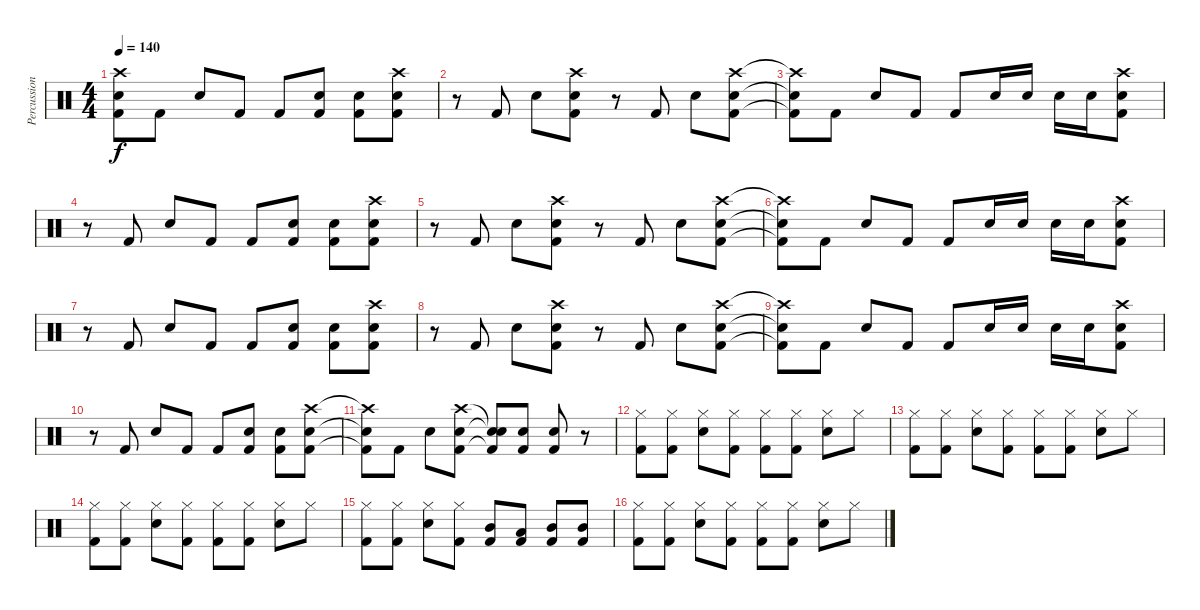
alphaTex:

\track ("Percussion" "Percussion") {instrument percussion}
\staff {score}
\articulation defaults
\ts (4 4)
\tempo 140
\clef neutral
\ks c
("Crash high (hit)"{t} "Snare (hit) 2"{t} "Kick (hit) 2"{t}).8{dy f} "Kick (hit) 2".8 "Snare (hit) 2".8 "Kick (hit) 2".8 "Kick (hit) 2".8 ("Snare (hit) 2" "Kick (hit) 2").8 ("Snare (hit) 2" "Kick (hit) 2").8 ("Crash high (hit)" "Snare (hit) 2" "Kick (hit) 2").8 |
r.8 "Kick (hit) 2".8 "Snare (hit) 2".8 ("Crash high (hit)" "Snare (hit) 2" "Kick (hit) 2").8 r.8 "Kick (hit) 2".8 "Snare (hit) 2".8 ("Crash high (hit)" "Snare (hit) 2" "Kick (hit) 2").8 |
("Crash high (hit)"{t} "Snare (hit) 2"{t} "Kick (hit) 2"{t}).8 "Kick (hit) 2".8 "Snare (hit) 2".8 "Kick (hit) 2".8 "Kick (hit) 2".8 "Snare (hit) 2".16 "Snare (hit) 2".16 "Snare (hit) 2".16 "Snare (hit) 2".16 ("Crash high (hit)" "Snare (hit) 2" "Kick (hit) 2").8 |
r.8 "Kick (hit) 2".8 "Snare (hit) 2".8 "Kick (hit) 2".8 "Kick (hit) 2".8 ("Snare (hit) 2" "Kick (hit) 2").8 ("Snare (hit) 2" "Kick (hit) 2").8 ("Crash high (hit)" "Snare (hit) 2" "Kick (hit) 2").8 |
r.8 "Kick (hit) 2".8 "Snare (hit) 2".8 ("Crash high (hit)" "Snare (hit) 2" "Kick (hit) 2").8 r.8 "Kick (hit) 2".8 "Snare (hit) 2".8 ("Crash high (hit)" "Snare (hit) 2" "Kick (hit) 2").8 |
("Crash high (hit)"{t} "Snare (hit) 2"{t} "Kick (hit) 2"{t}).8 "Kick (hit) 2".8 "Snare (hit) 2".8 "Kick (hit) 2".8 "Kick (hit) 2".8 "Snare (hit) 2".16 "Snare (hit) 2".16 "Snare (hit) 2".16 "Snare (hit) 2".16 ("Crash high (hit)" "Snare (hit) 2" "Kick (hit) 2").8 |
r.8 "Kick (hit) 2".8 "Snare (hit) 2".8 "Kick (hit) 2".8 "Kick (hit) 2".8 ("Snare (hit) 2" "Kick (hit) 2").8 ("Snare (hit) 2" "Kick (hit) 2").8 ("Crash high (hit)" "Snare (hit) 2" "Kick (hit) 2").8 |
r.8 "Kick (hit) 2".8 "Snare (hit) 2".8 ("Crash high (hit)" "Snare (hit) 2" "Kick (hit) 2").8 r.8 "Kick (hit) 2".8 "Snare (hit) 2".8 ("Crash high (hit)" "Snare (hit) 2" "Kick (hit) 2").8 |
("Crash high (hit)"{t} "Snare (hit) 2"{t} "Kick (hit) 2"{t}).8 "Kick (hit) 2".8 "Snare (hit) 2".8 "Kick (hit) 2".8 "Kick (hit) 2".8 "Snare (hit) 2".16 "Snare (hit) 2".16 "Snare (hit) 2".16 "Snare (hit) 2".16 ("Crash high (hit)" "Snare (hit) 2" "Kick (hit) 2").8 |
r.8 "Kick (hit) 2".8 "Snare (hit) 2".8 "Kick (hit) 2".8 "Kick (hit) 2".8 ("Snare (hit) 2" "Kick (hit) 2").8 ("Snare (hit) 2" "Kick (hit) 2").8 ("Crash high (hit)" "Snare (hit) 2" "Kick (hit) 2").8 |
("Crash high (hit)"{t} "Snare (hit) 2"{t} "Kick (hit) 2"{t}).8 "Kick (hit) 2".8 "Snare (hit) 2".8 ("Crash high (hit)" "Snare (hit) 2" "Kick (hit) 2").8 ("Snare (hit)"{t} "Snare (hit)"{t} "Kick (hit) 2"{t}).8 ("Snare (hit) 2" "Kick (hit) 2").8 ("Snare (hit) 2" "Kick (hit) 2").8 r.8 |
("Hi-Hat (closed)" "Kick (hit) 2").8 ("Hi-Hat (closed)" "Kick (hit) 2").8 ("Hi-Hat (closed)" "Snare (hit) 2").8 ("Hi-Hat (closed)" "Kick (hit) 2").8 ("Hi-Hat (closed)" "Kick (hit) 2").8 ("Hi-Hat (closed)" "Kick (hit) 2").8 ("Hi-Hat (closed)" "Snare (hit) 2").8 "Hi-Hat (closed)".8 |
("Hi-Hat (closed)" "Kick (hit) 2").8 ("Hi-Hat (closed)" "Kick (hit) 2").8 ("Hi-Hat (closed)" "Snare (hit) 2").8 ("Hi-Hat (closed)" "Kick (hit) 2").8 ("Hi-Hat (closed)" "Kick (hit) 2").8 ("Hi-Hat (closed)" "Kick (hit) 2").8 ("Hi-Hat (closed)" "Snare (hit) 2").8 "Hi-Hat (closed)".8 |
("Hi-Hat (closed)" "Kick (hit) 2").8 ("Hi-Hat (closed)" "Kick (hit) 2").8 ("Hi-Hat (closed)" "Snare (hit) 2").8 ("Hi-Hat (closed)" "Kick (hit) 2").8 ("Hi-Hat (closed)" "Kick (hit) 2").8 ("Hi-Hat (closed)" "Kick (hit) 2").8 ("Hi-Hat (closed)" "Snare (hit) 2").8 "Hi-Hat (closed)".8 |
("Hi-Hat (closed)" "Kick (hit) 2").8 ("Hi-Hat (closed)" "Kick (hit) 2").8 ("Hi-Hat (closed)" "Snare (hit) 2").8 ("Hi-Hat (closed)" "Kick (hit) 2").8 ("Mid Tom (hit)" "Kick (hit) 2").8 ("Low Tom (hit)" "Kick (hit) 2").8 ("Mid Tom (hit)" "Kick (hit) 2").8 ("Mid Tom (hit)" "Kick (hit) 2").8 |
("Hi-Hat (closed)" "Kick (hit) 2").8 ("Hi-Hat (closed)" "Kick (hit) 2").8 ("Hi-Hat (closed)" "Snare (hit) 2").8 ("Hi-Hat (closed)" "Kick (hit) 2").8 ("Hi-Hat (closed)" "Kick (hit) 2").8 ("Hi-Hat (closed)" "Kick (hit) 2").8 ("Hi-Hat (closed)" "Snare (hit) 2").8 "Hi-Hat (closed)".8
